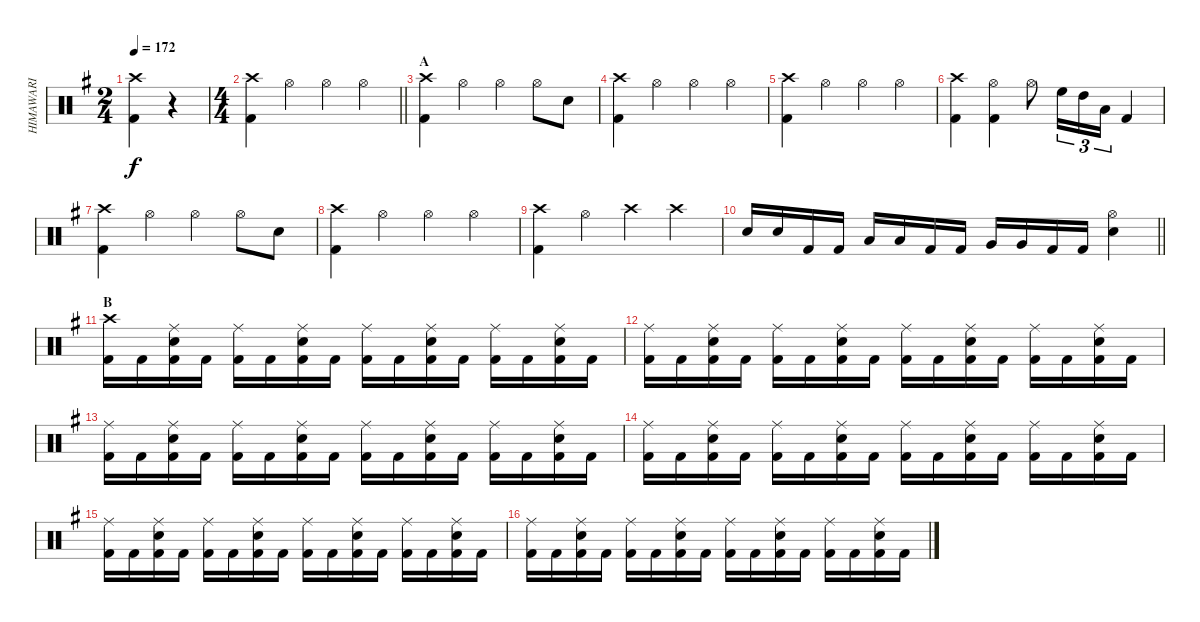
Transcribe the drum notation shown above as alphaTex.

\track ("HIMAWARI" "HIMAWARI") {instrument percussion}
\staff {score}
\articulation defaults
\ts (2 4)
\tempo 172
\clef neutral
\ks g
("Crash high (hit)" "Kick (hit) 2").4{dy f} r.4 |
\ts (4 4)
\barLineRight lightlight
("Crash high (hit)" "Kick (hit) 2").4 "Hi-Hat (open)".4 "Hi-Hat (open)".4 "Hi-Hat (open)".4 |
\section ("" "A")
("Crash high (hit)" "Kick (hit) 2").4 "Hi-Hat (open)".4 "Hi-Hat (open)".4 "Hi-Hat (open)".8 "Snare (hit) 2".8 |
("Crash high (hit)" "Kick (hit) 2").4 "Hi-Hat (open)".4 "Hi-Hat (open)".4 "Hi-Hat (open)".4 |
("Crash high (hit)" "Kick (hit) 2").4 "Hi-Hat (open)".4 "Hi-Hat (open)".4 "Hi-Hat (open)".4 |
("Crash high (hit)" "Kick (hit) 2").4 ("Kick (hit) 2" "Hi-Hat (open)").4 "Hi-Hat (open)".8 "High Floor Tom (hit)".16{tu (3 2)} "High Tom (hit)".16{tu (3 2)} "Low Tom (hit)".16{tu (3 2)} "Kick (hit) 2".4 |
("Crash high (hit)" "Kick (hit) 2").4 "Hi-Hat (open)".4 "Hi-Hat (open)".4 "Hi-Hat (open)".8 "Snare (hit) 2".8 |
("Crash high (hit)" "Kick (hit) 2").4 "Hi-Hat (open)".4 "Hi-Hat (open)".4 "Hi-Hat (open)".4 |
("Crash high (hit)" "Kick (hit) 2").4 "Hi-Hat (open)".4 "Crash high (hit)".4 "Crash high (hit)".4 |
\barLineRight lightlight "Snare (hit) 2".16 "Snare (hit) 2".16 "Kick (hit) 2".16 "Kick (hit) 2".16 "Low Tom (hit)".16 "Low Tom (hit)".16 "Kick (hit) 2".16 "Kick (hit) 2".16 "Very Low Tom (hit)".16 "Very Low Tom (hit)".16 "Kick (hit) 2".16 "Kick (hit) 2".16
("Snare (hit) 2" "Hi-Hat (open)").4 |
\section ("" "B")
("Crash high (hit)" "Kick (hit) 2").16 "Kick (hit) 2".16 ("Ride (middle)" "Kick (hit) 2" "Snare (hit) 2").16 "Kick (hit) 2".16 ("Ride (middle)" "Kick (hit) 2").16 "Kick (hit) 2".16 ("Ride (middle)" "Kick (hit) 2" "Snare (hit) 2").16 "Kick (hit) 2".16 ("Ride (middle)" "Kick (hit) 2").16 "Kick (hit) 2".16 ("Ride (middle)" "Kick (hit) 2" "Snare (hit) 2").16 "Kick (hit) 2".16 ("Ride (middle)" "Kick (hit) 2").16 "Kick (hit) 2".16 ("Ride (middle)" "Kick (hit) 2" "Snare (hit) 2").16 "Kick (hit) 2".16 |
("Ride (middle)" "Kick (hit) 2").16 "Kick (hit) 2".16 ("Ride (middle)" "Kick (hit) 2" "Snare (hit) 2").16 "Kick (hit) 2".16 ("Ride (middle)" "Kick (hit) 2").16 "Kick (hit) 2".16 ("Ride (middle)" "Kick (hit) 2" "Snare (hit) 2").16 "Kick (hit) 2".16 ("Ride (middle)" "Kick (hit) 2").16 "Kick (hit) 2".16 ("Ride (middle)" "Kick (hit) 2" "Snare (hit) 2").16 "Kick (hit) 2".16 ("Ride (middle)" "Kick (hit) 2").16 "Kick (hit) 2".16 ("Ride (middle)" "Kick (hit) 2" "Snare (hit) 2").16 "Kick (hit) 2".16 |
("Ride (middle)" "Kick (hit) 2").16 "Kick (hit) 2".16 ("Ride (middle)" "Kick (hit) 2" "Snare (hit) 2").16 "Kick (hit) 2".16 ("Ride (middle)" "Kick (hit) 2").16 "Kick (hit) 2".16 ("Ride (middle)" "Kick (hit) 2" "Snare (hit) 2").16 "Kick (hit) 2".16 ("Ride (middle)" "Kick (hit) 2").16 "Kick (hit) 2".16 ("Ride (middle)" "Kick (hit) 2" "Snare (hit) 2").16 "Kick (hit) 2".16 ("Ride (middle)" "Kick (hit) 2").16 "Kick (hit) 2".16 ("Ride (middle)" "Kick (hit) 2" "Snare (hit) 2").16 "Kick (hit) 2".16 |
("Ride (middle)" "Kick (hit) 2").16 "Kick (hit) 2".16 ("Ride (middle)" "Kick (hit) 2" "Snare (hit) 2").16 "Kick (hit) 2".16 ("Ride (middle)" "Kick (hit) 2").16 "Kick (hit) 2".16 ("Ride (middle)" "Kick (hit) 2" "Snare (hit) 2").16 "Kick (hit) 2".16 ("Ride (middle)" "Kick (hit) 2").16 "Kick (hit) 2".16 ("Ride (middle)" "Kick (hit) 2" "Snare (hit) 2").16 "Kick (hit) 2".16 ("Ride (middle)" "Kick (hit) 2").16 "Kick (hit) 2".16 ("Ride (middle)" "Kick (hit) 2" "Snare (hit) 2").16 "Kick (hit) 2".16 |
("Ride (middle)" "Kick (hit) 2").16 "Kick (hit) 2".16 ("Ride (middle)" "Kick (hit) 2" "Snare (hit) 2").16 "Kick (hit) 2".16 ("Ride (middle)" "Kick (hit) 2").16 "Kick (hit) 2".16 ("Ride (middle)" "Kick (hit) 2" "Snare (hit) 2").16 "Kick (hit) 2".16 ("Ride (middle)" "Kick (hit) 2").16 "Kick (hit) 2".16 ("Ride (middle)" "Kick (hit) 2" "Snare (hit) 2").16 "Kick (hit) 2".16 ("Ride (middle)" "Kick (hit) 2").16 "Kick (hit) 2".16 ("Ride (middle)" "Kick (hit) 2" "Snare (hit) 2").16 "Kick (hit) 2".16 |
("Ride (middle)" "Kick (hit) 2").16 "Kick (hit) 2".16 ("Ride (middle)" "Kick (hit) 2" "Snare (hit) 2").16 "Kick (hit) 2".16 ("Ride (middle)" "Kick (hit) 2").16 "Kick (hit) 2".16 ("Ride (middle)" "Kick (hit) 2" "Snare (hit) 2").16 "Kick (hit) 2".16 ("Ride (middle)" "Kick (hit) 2").16 "Kick (hit) 2".16 ("Ride (middle)" "Kick (hit) 2" "Snare (hit) 2").16 "Kick (hit) 2".16 ("Ride (middle)" "Kick (hit) 2").16 "Kick (hit) 2".16 ("Ride (middle)" "Kick (hit) 2" "Snare (hit) 2").16 "Kick (hit) 2".16
